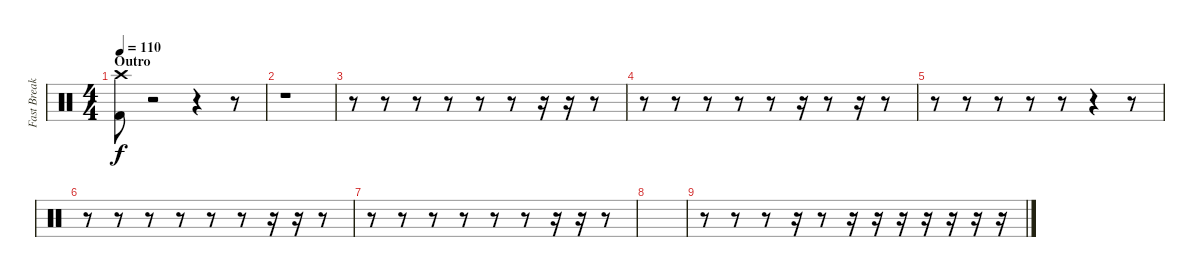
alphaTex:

\track ("Fast Break Drums" "Fast Break") {instrument percussion}
\staff {score}
\articulation defaults
\ts (4 4)
\section ("" "Outro")
\tempo 110
\clef neutral
\ks c
("Kick (hit) 2" "Crash high (hit)").8{dy f} r.2 r.4 r.8 |
r.1 |
r.8 r.8 r.8 r.8 r.8 r.8 r.16 r.16 r.8 |
r.8 r.8 r.8 r.8 r.8 r.16 r.8 r.16 r.8 |
r.8 r.8 r.8 r.8 r.8 r.4 r.8 |
r.8 r.8 r.8 r.8 r.8 r.8 r.16 r.16 r.8 |
r.8 r.8 r.8 r.8 r.8 r.8 r.16 r.16 r.8 |
|
r.8 r.8 r.8 r.16 r.8 r.16 r.16 r.16 r.16 r.16 r.16 r.16
